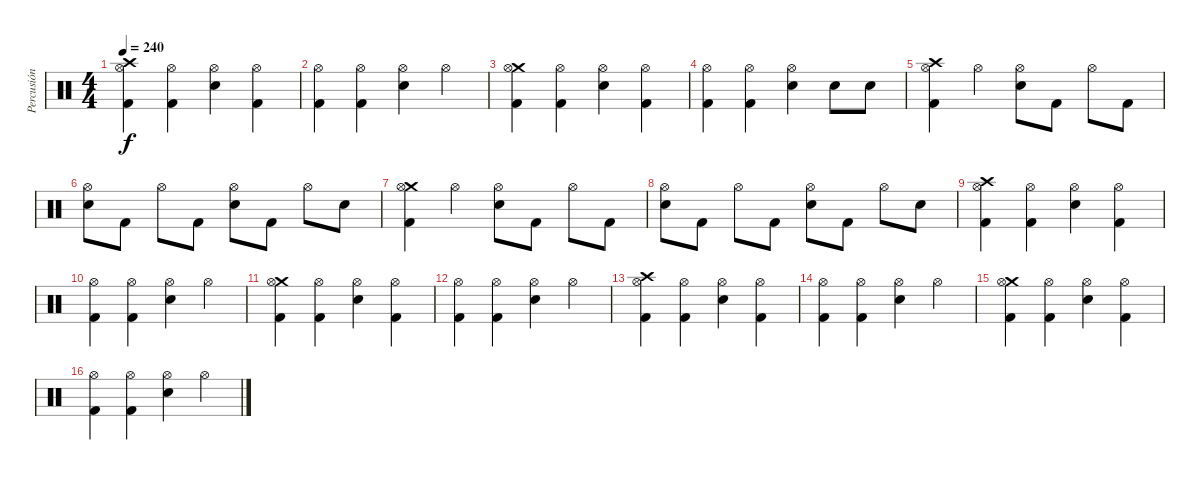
\track ("Percusión" "Percusión") {instrument percussion}
\staff {score}
\articulation defaults
\ts (4 4)
\tempo 240
\clef neutral
\ks c
("Crash high (hit)" "Hi-Hat (open)" "Kick (hit) 2").4{dy f} ("Hi-Hat (open)" "Kick (hit) 2").4 ("Hi-Hat (open)" "Snare (hit) 2").4 ("Hi-Hat (open)" "Kick (hit) 2").4 |
("Hi-Hat (open)" "Kick (hit) 2").4 ("Hi-Hat (open)" "Kick (hit) 2").4 ("Hi-Hat (open)" "Snare (hit) 2").4 "Hi-Hat (open)".4 |
("Crash medium (hit)" "Hi-Hat (open)" "Kick (hit) 2").4 ("Hi-Hat (open)" "Kick (hit) 2").4 ("Hi-Hat (open)" "Snare (hit) 2").4 ("Hi-Hat (open)" "Kick (hit) 2").4 |
("Hi-Hat (open)" "Kick (hit) 2").4 ("Hi-Hat (open)" "Kick (hit) 2").4 ("Hi-Hat (open)" "Snare (hit) 2").4 "Snare (hit) 2".8 "Snare (hit) 2".8 |
("Crash high (hit)" "Hi-Hat (open)" "Kick (hit) 2").4 "Hi-Hat (open)".4 ("Hi-Hat (open)" "Snare (hit) 2").8 "Kick (hit) 2".8 "Hi-Hat (open)".8 "Kick (hit) 2".8 |
("Hi-Hat (open)" "Snare (hit) 2").8 "Kick (hit) 2".8 "Hi-Hat (open)".8 "Kick (hit) 2".8 ("Hi-Hat (open)" "Snare (hit) 2").8 "Kick (hit) 2".8 "Hi-Hat (open)".8 "Snare (hit) 2".8 |
("Crash medium (hit)" "Hi-Hat (open)" "Kick (hit) 2").4 "Hi-Hat (open)".4 ("Hi-Hat (open)" "Snare (hit) 2").8 "Kick (hit) 2".8 "Hi-Hat (open)".8 "Kick (hit) 2".8 |
("Hi-Hat (open)" "Snare (hit) 2").8 "Kick (hit) 2".8 "Hi-Hat (open)".8 "Kick (hit) 2".8 ("Hi-Hat (open)" "Snare (hit) 2").8 "Kick (hit) 2".8 "Hi-Hat (open)".8 "Snare (hit) 2".8 |
("Crash high (hit)" "Hi-Hat (open)" "Kick (hit) 2").4 ("Hi-Hat (open)" "Kick (hit) 2").4 ("Hi-Hat (open)" "Snare (hit) 2").4 ("Hi-Hat (open)" "Kick (hit) 2").4 |
("Hi-Hat (open)" "Kick (hit) 2").4 ("Hi-Hat (open)" "Kick (hit) 2").4 ("Hi-Hat (open)" "Snare (hit) 2").4 "Hi-Hat (open)".4 |
("Crash medium (hit)" "Hi-Hat (open)" "Kick (hit) 2").4 ("Hi-Hat (open)" "Kick (hit) 2").4 ("Hi-Hat (open)" "Snare (hit) 2").4 ("Hi-Hat (open)" "Kick (hit) 2").4 |
("Hi-Hat (open)" "Kick (hit) 2").4 ("Hi-Hat (open)" "Kick (hit) 2").4 ("Hi-Hat (open)" "Snare (hit) 2").4 "Hi-Hat (open)".4 |
("Crash high (hit)" "Hi-Hat (open)" "Kick (hit) 2").4 ("Hi-Hat (open)" "Kick (hit) 2").4 ("Hi-Hat (open)" "Snare (hit) 2").4 ("Hi-Hat (open)" "Kick (hit) 2").4 |
("Hi-Hat (open)" "Kick (hit) 2").4 ("Hi-Hat (open)" "Kick (hit) 2").4 ("Hi-Hat (open)" "Snare (hit) 2").4 "Hi-Hat (open)".4 |
("Crash medium (hit)" "Hi-Hat (open)" "Kick (hit) 2").4 ("Hi-Hat (open)" "Kick (hit) 2").4 ("Hi-Hat (open)" "Snare (hit) 2").4 ("Hi-Hat (open)" "Kick (hit) 2").4 |
("Hi-Hat (open)" "Kick (hit) 2").4 ("Hi-Hat (open)" "Kick (hit) 2").4 ("Hi-Hat (open)" "Snare (hit) 2").4 "Hi-Hat (open)".4
